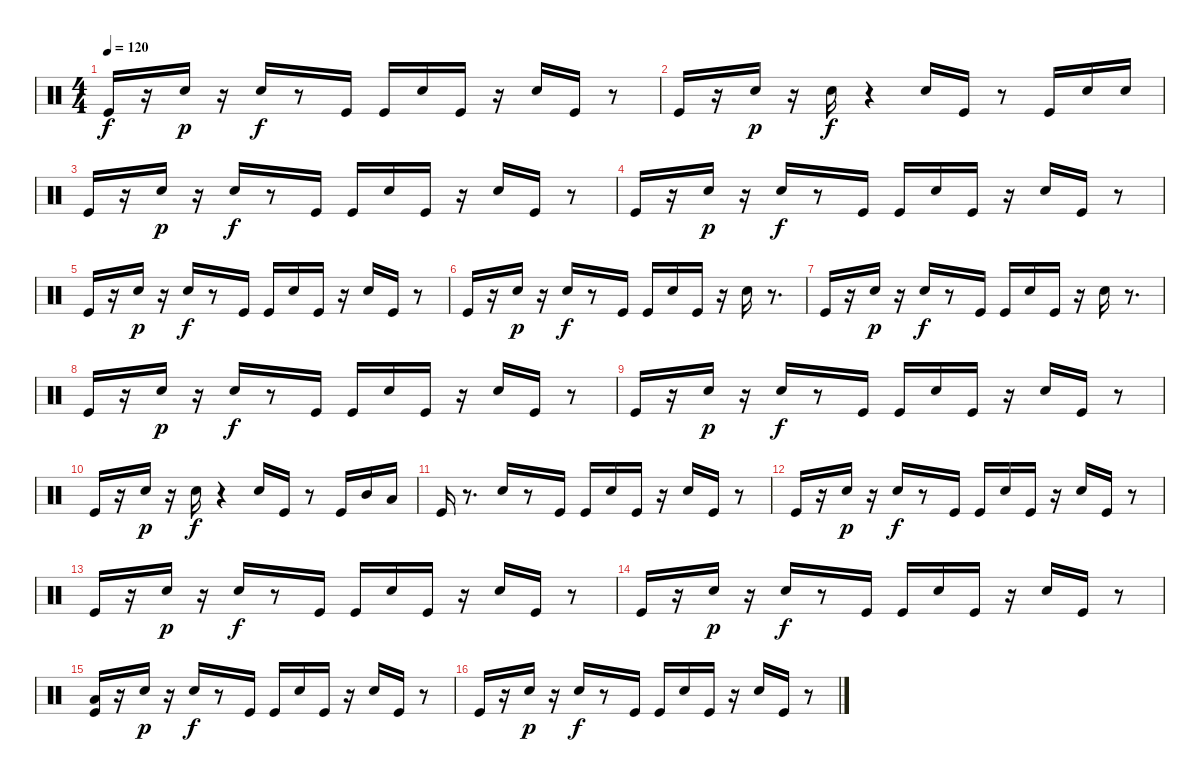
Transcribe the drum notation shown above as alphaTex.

\track "" {instrument percussion}
\staff {score}
\articulation defaults
\ts (4 4)
\tempo 120
\clef neutral
\ks c "Kick (hit)".16{dy f}
r.16 "Electric Snare (hit)".16{dy p} r.16 "Electric Snare (hit)".16{dy f} r.8 "Kick (hit)".16 "Kick (hit)".16 "Electric Snare (hit)".16 "Kick (hit)".16 r.16 "Electric Snare (hit)".16 "Kick (hit)".16 r.8 |
"Kick (hit)".16 r.16 "Electric Snare (hit)".16{dy p} r.16 "Electric Snare (hit)".16{dy f} r.4 "Electric Snare (hit)".16 "Kick (hit)".16 r.8 "Kick (hit)".16 "Electric Snare (hit)".16 "Electric Snare (hit)".16 |
"Kick (hit)".16 r.16 "Electric Snare (hit)".16{dy p} r.16 "Electric Snare (hit)".16{dy f} r.8 "Kick (hit)".16 "Kick (hit)".16 "Electric Snare (hit)".16 "Kick (hit)".16 r.16 "Electric Snare (hit)".16 "Kick (hit)".16 r.8 |
"Kick (hit)".16 r.16 "Electric Snare (hit)".16{dy p} r.16 "Electric Snare (hit)".16{dy f} r.8 "Kick (hit)".16 "Kick (hit)".16 "Electric Snare (hit)".16 "Kick (hit)".16 r.16 "Electric Snare (hit)".16 "Kick (hit)".16 r.8 |
"Kick (hit)".16 r.16 "Electric Snare (hit)".16{dy p} r.16 "Electric Snare (hit)".16{dy f} r.8 "Kick (hit)".16 "Kick (hit)".16 "Electric Snare (hit)".16 "Kick (hit)".16 r.16 "Electric Snare (hit)".16 "Kick (hit)".16 r.8 |
"Kick (hit)".16 r.16 "Electric Snare (hit)".16{dy p} r.16 "Electric Snare (hit)".16{dy f} r.8 "Kick (hit)".16 "Kick (hit)".16 "Electric Snare (hit)".16 "Kick (hit)".16 r.16 "Electric Snare (hit)".16 r.8{d} |
"Kick (hit)".16 r.16 "Electric Snare (hit)".16{dy p} r.16 "Electric Snare (hit)".16{dy f} r.8 "Kick (hit)".16 "Kick (hit)".16 "Electric Snare (hit)".16 "Kick (hit)".16 r.16 "Electric Snare (hit)".16 r.8{d} |
"Kick (hit)".16 r.16 "Electric Snare (hit)".16{dy p} r.16 "Electric Snare (hit)".16{dy f} r.8 "Kick (hit)".16 "Kick (hit)".16 "Electric Snare (hit)".16 "Kick (hit)".16 r.16 "Electric Snare (hit)".16 "Kick (hit)".16 r.8 |
"Kick (hit)".16 r.16 "Electric Snare (hit)".16{dy p} r.16 "Electric Snare (hit)".16{dy f} r.8 "Kick (hit)".16 "Kick (hit)".16 "Electric Snare (hit)".16 "Kick (hit)".16 r.16 "Electric Snare (hit)".16 "Kick (hit)".16 r.8 |
"Kick (hit)".16 r.16 "Electric Snare (hit)".16{dy p} r.16 "Electric Snare (hit)".16{dy f} r.4 "Electric Snare (hit)".16 "Kick (hit)".16 r.8 "Kick (hit)".16 "Mid Tom (hit)".16 "Low Tom (hit)".16 |
"Kick (hit)".16 r.8{d} "Electric Snare (hit)".16 r.8 "Kick (hit)".16 "Kick (hit)".16 "Electric Snare (hit)".16 "Kick (hit)".16 r.16 "Electric Snare (hit)".16 "Kick (hit)".16 r.8 |
"Kick (hit)".16 r.16 "Electric Snare (hit)".16{dy p} r.16 "Electric Snare (hit)".16{dy f} r.8 "Kick (hit)".16 "Kick (hit)".16 "Electric Snare (hit)".16 "Kick (hit)".16 r.16 "Electric Snare (hit)".16 "Kick (hit)".16 r.8 |
"Kick (hit)".16 r.16 "Electric Snare (hit)".16{dy p} r.16 "Electric Snare (hit)".16{dy f} r.8 "Kick (hit)".16 "Kick (hit)".16 "Electric Snare (hit)".16 "Kick (hit)".16 r.16 "Electric Snare (hit)".16 "Kick (hit)".16 r.8 |
"Kick (hit)".16 r.16 "Electric Snare (hit)".16{dy p} r.16 "Electric Snare (hit)".16{dy f} r.8 "Kick (hit)".16 "Kick (hit)".16 "Electric Snare (hit)".16 "Kick (hit)".16 r.16 "Electric Snare (hit)".16 "Kick (hit)".16 r.8 |
("Low Tom (hit)" "Kick (hit)").16 r.16 "Electric Snare (hit)".16{dy p} r.16 "Electric Snare (hit)".16{dy f} r.8 "Kick (hit)".16 "Kick (hit)".16 "Electric Snare (hit)".16 "Kick (hit)".16 r.16 "Electric Snare (hit)".16 "Kick (hit)".16 r.8 |
"Kick (hit)".16 r.16 "Electric Snare (hit)".16{dy p} r.16 "Electric Snare (hit)".16{dy f} r.8 "Kick (hit)".16 "Kick (hit)".16 "Electric Snare (hit)".16 "Kick (hit)".16 r.16 "Electric Snare (hit)".16 "Kick (hit)".16 r.8
